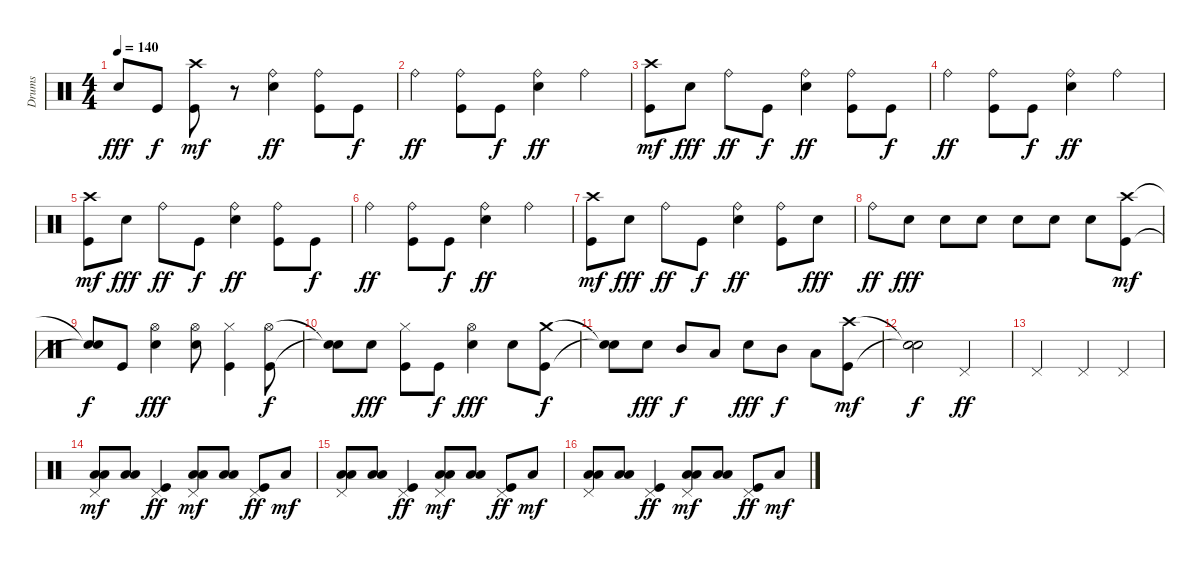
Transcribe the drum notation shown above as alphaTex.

\track ("Drums" "Drums") {instrument percussion}
\staff {score}
\articulation defaults
\ts (4 4)
\tempo 140
\clef neutral
\ks c "Electric Snare (hit)".8{dy fff} "Kick (hit)".8{dy f}
("Crash high (hit)" "Kick (hit)").8{dy mf} r.8 ("Electric Snare (hit)" "Ride (bell)").4{dy ff} ("Kick (hit)" "Ride (bell)").8 "Kick (hit)".8{dy f} |
"Ride (bell)".4{dy ff} ("Kick (hit)" "Ride (bell)").8 "Kick (hit)".8{dy f} ("Electric Snare (hit)" "Ride (bell)").4{dy ff} "Ride (bell)".4 |
("Kick (hit)" "Crash high (hit)").8{dy mf} "Electric Snare (hit)".8{dy fff} "Ride (bell)".8{dy ff} "Kick (hit)".8{dy f} ("Electric Snare (hit)" "Ride (bell)").4{dy ff} ("Kick (hit)" "Ride (bell)").8 "Kick (hit)".8{dy f} |
"Ride (bell)".4{dy ff} ("Kick (hit)" "Ride (bell)").8 "Kick (hit)".8{dy f} ("Electric Snare (hit)" "Ride (bell)").4{dy ff} "Ride (bell)".4 |
("Kick (hit)" "Crash high (hit)").8{dy mf} "Electric Snare (hit)".8{dy fff} "Ride (bell)".8{dy ff} "Kick (hit)".8{dy f} ("Electric Snare (hit)" "Ride (bell)").4{dy ff} ("Kick (hit)" "Ride (bell)").8 "Kick (hit)".8{dy f} |
"Ride (bell)".4{dy ff} ("Kick (hit)" "Ride (bell)").8 "Kick (hit)".8{dy f} ("Electric Snare (hit)" "Ride (bell)").4{dy ff} "Ride (bell)".4 |
("Kick (hit)" "Crash high (hit)").8{dy mf} "Electric Snare (hit)".8{dy fff} "Ride (bell)".8{dy ff} "Kick (hit)".8{dy f} ("Electric Snare (hit)" "Ride (bell)").4{dy ff} ("Kick (hit)" "Ride (bell)").8 "Electric Snare (hit)".8{dy fff} |
"Ride (bell)".8{dy ff} "Electric Snare (hit)".8{dy fff} "Electric Snare (hit)".8 "Electric Snare (hit)".8 "Electric Snare (hit)".8 "Electric Snare (hit)".8 "Electric Snare (hit)".8 ("Crash high (hit)" "Kick (hit)").8{dy mf} |
("Snare (hit)"{t} "Snare (hit)"{t}).8{dy f} "Kick (hit)".8 ("Hi-Hat (open)" "Electric Snare (hit)").4{dy fff} ("Hi-Hat (open)" "Electric Snare (hit)").8 ("Hi-Hat (closed)" "Kick (hit)").4 ("Kick (hit)" "Hi-Hat (open)").8{dy f} |
("Snare (hit)"{t} "Snare (hit)"{t}).8 "Electric Snare (hit)".8{dy fff} ("Hi-Hat (closed)" "Kick (hit)").8 "Kick (hit)".8{dy f} ("Hi-Hat (open)" "Electric Snare (hit)").4{dy fff} "Electric Snare (hit)".8 ("Crash medium (hit)" "Kick (hit)").8{dy f} |
("Snare (hit)"{t} "Snare (hit)"{t}).8 "Electric Snare (hit)".8{dy fff} "Mid Tom (hit)".8{dy f} "Low Tom (hit)".8 "Electric Snare (hit)".8{dy fff} "Mid Tom (hit)".8{dy f} "Low Tom (hit)".8 ("Crash high (hit)" "Kick (hit)").8{dy mf} |
("Snare (hit)"{t} "Snare (hit)"{t}).2{dy f} "Pedal Hi-Hat (hit)".2{dy ff} |
"Pedal Hi-Hat (hit)".2 "Pedal Hi-Hat (hit)".4 "Pedal Hi-Hat (hit)".4 |
("Pedal Hi-Hat (hit)" "Low Floor Tom (hit)" "Low Floor Tom (hit)").8{dy mf} ("Low Floor Tom (hit)" "Low Floor Tom (hit)").8 ("Pedal Hi-Hat (hit)" "Kick (hit)").4{dy ff} ("Pedal Hi-Hat (hit)" "Low Floor Tom (hit)" "Low Floor Tom (hit)").8{dy mf} ("Low Floor Tom (hit)" "Low Floor Tom (hit)").8 ("Pedal Hi-Hat (hit)" "Kick (hit)").8{dy ff} "Low Floor Tom (hit)".8{dy mf} |
("Pedal Hi-Hat (hit)" "Low Floor Tom (hit)" "Low Floor Tom (hit)").8 ("Low Floor Tom (hit)" "Low Floor Tom (hit)").8 ("Pedal Hi-Hat (hit)" "Kick (hit)").4{dy ff} ("Pedal Hi-Hat (hit)" "Low Floor Tom (hit)" "Low Floor Tom (hit)").8{dy mf} ("Low Floor Tom (hit)" "Low Floor Tom (hit)").8 ("Pedal Hi-Hat (hit)" "Kick (hit)").8{dy ff} "Low Floor Tom (hit)".8{dy mf} |
("Pedal Hi-Hat (hit)" "Low Floor Tom (hit)" "Low Floor Tom (hit)").8 ("Low Floor Tom (hit)" "Low Floor Tom (hit)").8 ("Pedal Hi-Hat (hit)" "Kick (hit)").4{dy ff} ("Pedal Hi-Hat (hit)" "Low Floor Tom (hit)" "Low Floor Tom (hit)").8{dy mf} ("Low Floor Tom (hit)" "Low Floor Tom (hit)").8 ("Pedal Hi-Hat (hit)" "Kick (hit)").8{dy ff} "Low Floor Tom (hit)".8{dy mf}
